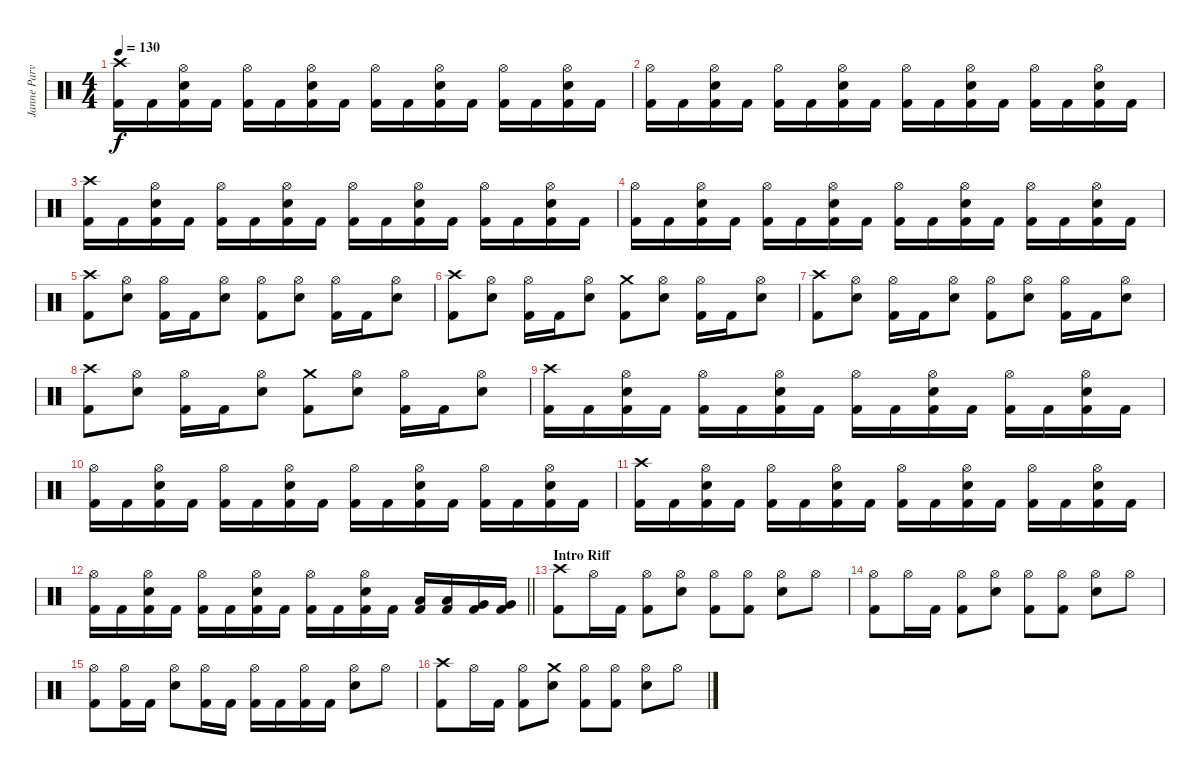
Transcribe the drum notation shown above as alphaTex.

\track ("Janne Parviainen" "Janne Parv") {instrument percussion}
\staff {score}
\articulation defaults
\ts (4 4)
\tempo 130
\clef neutral
\ks c
("Crash high (hit)" "Kick (hit) 2").16{dy f} "Kick (hit) 2".16 ("Hi-Hat (open)" "Electric Snare (hit)" "Kick (hit) 2").16 "Kick (hit) 2".16 ("Hi-Hat (open)" "Kick (hit) 2").16 "Kick (hit) 2".16 ("Hi-Hat (open)" "Electric Snare (hit)" "Kick (hit) 2").16 "Kick (hit) 2".16 ("Hi-Hat (open)" "Kick (hit) 2").16 "Kick (hit) 2".16 ("Hi-Hat (open)" "Electric Snare (hit)" "Kick (hit) 2").16 "Kick (hit) 2".16 ("Hi-Hat (open)" "Kick (hit) 2").16 "Kick (hit) 2".16 ("Hi-Hat (open)" "Electric Snare (hit)" "Kick (hit) 2").16 "Kick (hit) 2".16 |
("Hi-Hat (open)" "Kick (hit) 2").16 "Kick (hit) 2".16 ("Hi-Hat (open)" "Electric Snare (hit)" "Kick (hit) 2").16 "Kick (hit) 2".16 ("Hi-Hat (open)" "Kick (hit) 2").16 "Kick (hit) 2".16 ("Hi-Hat (open)" "Electric Snare (hit)" "Kick (hit) 2").16 "Kick (hit) 2".16 ("Hi-Hat (open)" "Kick (hit) 2").16 "Kick (hit) 2".16 ("Hi-Hat (open)" "Electric Snare (hit)" "Kick (hit) 2").16 "Kick (hit) 2".16 ("Hi-Hat (open)" "Kick (hit) 2").16 "Kick (hit) 2".16 ("Hi-Hat (open)" "Electric Snare (hit)" "Kick (hit) 2").16 "Kick (hit) 2".16 |
("Crash high (hit)" "Kick (hit) 2").16 "Kick (hit) 2".16 ("Hi-Hat (open)" "Electric Snare (hit)" "Kick (hit) 2").16 "Kick (hit) 2".16 ("Hi-Hat (open)" "Kick (hit) 2").16 "Kick (hit) 2".16 ("Hi-Hat (open)" "Electric Snare (hit)" "Kick (hit) 2").16 "Kick (hit) 2".16 ("Hi-Hat (open)" "Kick (hit) 2").16 "Kick (hit) 2".16 ("Hi-Hat (open)" "Electric Snare (hit)" "Kick (hit) 2").16 "Kick (hit) 2".16 ("Hi-Hat (open)" "Kick (hit) 2").16 "Kick (hit) 2".16 ("Hi-Hat (open)" "Electric Snare (hit)" "Kick (hit) 2").16 "Kick (hit) 2".16 |
("Hi-Hat (open)" "Kick (hit) 2").16 "Kick (hit) 2".16 ("Hi-Hat (open)" "Electric Snare (hit)" "Kick (hit) 2").16 "Kick (hit) 2".16 ("Hi-Hat (open)" "Kick (hit) 2").16 "Kick (hit) 2".16 ("Hi-Hat (open)" "Electric Snare (hit)" "Kick (hit) 2").16 "Kick (hit) 2".16 ("Hi-Hat (open)" "Kick (hit) 2").16 "Kick (hit) 2".16 ("Hi-Hat (open)" "Electric Snare (hit)" "Kick (hit) 2").16 "Kick (hit) 2".16 ("Hi-Hat (open)" "Kick (hit) 2").16 "Kick (hit) 2".16 ("Hi-Hat (open)" "Electric Snare (hit)" "Kick (hit) 2").16 "Kick (hit) 2".16 |
("Crash high (hit)" "Kick (hit) 2").8 ("Hi-Hat (open)" "Electric Snare (hit)").8 ("Hi-Hat (open)" "Kick (hit) 2").16 "Kick (hit) 2".16 ("Hi-Hat (open)" "Electric Snare (hit)").8 ("Hi-Hat (open)" "Kick (hit) 2").8 ("Hi-Hat (open)" "Electric Snare (hit)").8 ("Hi-Hat (open)" "Kick (hit) 2").16 "Kick (hit) 2".16 ("Hi-Hat (open)" "Electric Snare (hit)").8 |
("Crash high (hit)" "Kick (hit) 2").8 ("Hi-Hat (open)" "Electric Snare (hit)").8 ("Hi-Hat (open)" "Kick (hit) 2").16 "Kick (hit) 2".16 ("Hi-Hat (open)" "Electric Snare (hit)").8 ("Crash medium (hit)" "Kick (hit) 2").8 ("Hi-Hat (open)" "Electric Snare (hit)").8 ("Hi-Hat (open)" "Kick (hit) 2").16 "Kick (hit) 2".16 ("Hi-Hat (open)" "Electric Snare (hit)").8 |
("Crash high (hit)" "Kick (hit) 2").8 ("Hi-Hat (open)" "Electric Snare (hit)").8 ("Hi-Hat (open)" "Kick (hit) 2").16 "Kick (hit) 2".16 ("Hi-Hat (open)" "Electric Snare (hit)").8 ("Hi-Hat (open)" "Kick (hit) 2").8 ("Hi-Hat (open)" "Electric Snare (hit)").8 ("Hi-Hat (open)" "Kick (hit) 2").16 "Kick (hit) 2".16 ("Hi-Hat (open)" "Electric Snare (hit)").8 |
("Crash high (hit)" "Kick (hit) 2").8 ("Hi-Hat (open)" "Electric Snare (hit)").8 ("Hi-Hat (open)" "Kick (hit) 2").16 "Kick (hit) 2".16 ("Hi-Hat (open)" "Electric Snare (hit)").8 ("Crash medium (hit)" "Kick (hit) 2").8 ("Hi-Hat (open)" "Electric Snare (hit)").8 ("Hi-Hat (open)" "Kick (hit) 2").16 "Kick (hit) 2".16 ("Hi-Hat (open)" "Electric Snare (hit)").8 |
("Crash high (hit)" "Kick (hit) 2").16 "Kick (hit) 2".16 ("Hi-Hat (open)" "Electric Snare (hit)" "Kick (hit) 2").16 "Kick (hit) 2".16 ("Hi-Hat (open)" "Kick (hit) 2").16 "Kick (hit) 2".16 ("Hi-Hat (open)" "Electric Snare (hit)" "Kick (hit) 2").16 "Kick (hit) 2".16 ("Hi-Hat (open)" "Kick (hit) 2").16 "Kick (hit) 2".16 ("Hi-Hat (open)" "Electric Snare (hit)" "Kick (hit) 2").16 "Kick (hit) 2".16 ("Hi-Hat (open)" "Kick (hit) 2").16 "Kick (hit) 2".16 ("Hi-Hat (open)" "Electric Snare (hit)" "Kick (hit) 2").16 "Kick (hit) 2".16 |
("Hi-Hat (open)" "Kick (hit) 2").16 "Kick (hit) 2".16 ("Hi-Hat (open)" "Electric Snare (hit)" "Kick (hit) 2").16 "Kick (hit) 2".16 ("Hi-Hat (open)" "Kick (hit) 2").16 "Kick (hit) 2".16 ("Hi-Hat (open)" "Electric Snare (hit)" "Kick (hit) 2").16 "Kick (hit) 2".16 ("Hi-Hat (open)" "Kick (hit) 2").16 "Kick (hit) 2".16 ("Hi-Hat (open)" "Electric Snare (hit)" "Kick (hit) 2").16 "Kick (hit) 2".16 ("Hi-Hat (open)" "Kick (hit) 2").16 "Kick (hit) 2".16 ("Hi-Hat (open)" "Electric Snare (hit)" "Kick (hit) 2").16 "Kick (hit) 2".16 |
("Crash high (hit)" "Kick (hit) 2").16 "Kick (hit) 2".16 ("Hi-Hat (open)" "Electric Snare (hit)" "Kick (hit) 2").16 "Kick (hit) 2".16 ("Hi-Hat (open)" "Kick (hit) 2").16 "Kick (hit) 2".16 ("Hi-Hat (open)" "Electric Snare (hit)" "Kick (hit) 2").16 "Kick (hit) 2".16 ("Hi-Hat (open)" "Kick (hit) 2").16 "Kick (hit) 2".16 ("Hi-Hat (open)" "Electric Snare (hit)" "Kick (hit) 2").16 "Kick (hit) 2".16 ("Hi-Hat (open)" "Kick (hit) 2").16 "Kick (hit) 2".16 ("Hi-Hat (open)" "Electric Snare (hit)" "Kick (hit) 2").16 "Kick (hit) 2".16 |
\barLineRight lightlight
("Hi-Hat (open)" "Kick (hit) 2").16 "Kick (hit) 2".16 ("Hi-Hat (open)" "Electric Snare (hit)" "Kick (hit) 2").16 "Kick (hit) 2".16 ("Hi-Hat (open)" "Kick (hit) 2").16 "Kick (hit) 2".16 ("Hi-Hat (open)" "Electric Snare (hit)" "Kick (hit) 2").16 "Kick (hit) 2".16 ("Hi-Hat (open)" "Kick (hit) 2").16 "Kick (hit) 2".16 ("Hi-Hat (open)" "Electric Snare (hit)" "Kick (hit) 2").16 "Kick (hit) 2".16 ("Low Tom (hit)" "Kick (hit) 2").16 ("Low Tom (hit)" "Kick (hit) 2").16 ("Very Low Tom (hit)" "Kick (hit) 2").16 ("Very Low Tom (hit)" "Kick (hit) 2").16 |
\section ("" "Intro Riff")
("Crash high (hit)" "Kick (hit) 2").8 "Hi-Hat (open)".16 "Kick (hit) 2".16 ("Hi-Hat (open)" "Kick (hit) 2").8 ("Hi-Hat (open)" "Electric Snare (hit)").8 ("Hi-Hat (open)" "Kick (hit) 2").8 ("Hi-Hat (open)" "Kick (hit) 2").8 ("Hi-Hat (open)" "Electric Snare (hit)").8 "Hi-Hat (open)".8 |
("Hi-Hat (open)" "Kick (hit) 2").8 "Hi-Hat (open)".16 "Kick (hit) 2".16 ("Hi-Hat (open)" "Kick (hit) 2").8 ("Hi-Hat (open)" "Electric Snare (hit)").8 ("Hi-Hat (open)" "Kick (hit) 2").8 ("Hi-Hat (open)" "Kick (hit) 2").8 ("Hi-Hat (open)" "Electric Snare (hit)").8 "Hi-Hat (open)".8 |
("Hi-Hat (open)" "Kick (hit) 2").8 ("Hi-Hat (open)" "Kick (hit) 2").16 "Kick (hit) 2".16 ("Hi-Hat (open)" "Electric Snare (hit)").8 ("Hi-Hat (open)" "Kick (hit) 2").16 "Kick (hit) 2".16 ("Hi-Hat (open)" "Kick (hit) 2").16 "Kick (hit) 2".16 ("Hi-Hat (open)" "Kick (hit) 2").16 "Kick (hit) 2".16 ("Hi-Hat (open)" "Electric Snare (hit)").8 "Hi-Hat (open)".8 |
("Crash high (hit)" "Kick (hit) 2").8 "Hi-Hat (open)".16 "Kick (hit) 2".16 ("Hi-Hat (open)" "Kick (hit) 2").8 ("Crash medium (hit)" "Electric Snare (hit)").8 ("Hi-Hat (open)" "Kick (hit) 2").8 ("Hi-Hat (open)" "Kick (hit) 2").8 ("Hi-Hat (open)" "Electric Snare (hit)").8 "Hi-Hat (open)".8
